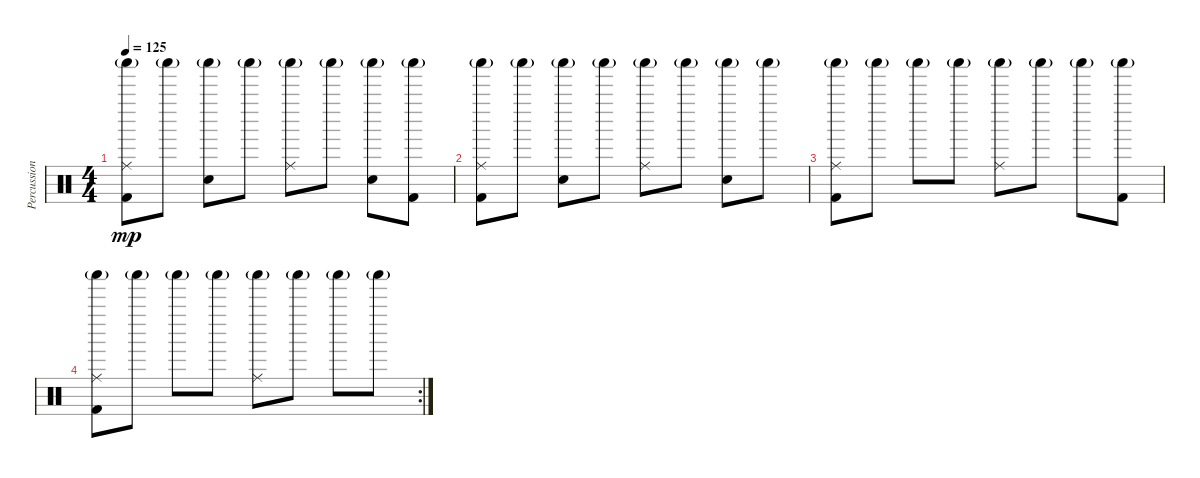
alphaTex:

\track ("Percussion" "Percussion") {instrument percussion}
\staff {score}
\articulation defaults
\ts (4 4)
\tempo 125
\clef neutral
\ks c
("Ride (middle)" "Shaker (hit)"{g} "Kick (hit) 2").8{dy mp} "Shaker (hit)"{g}.8 ("Shaker (hit)"{g} "Electric Snare (hit)").8 "Shaker (hit)"{g}.8 ("Ride (middle)" "Shaker (hit)"{g}).8 "Shaker (hit)"{g}.8 ("Shaker (hit)"{g} "Electric Snare (hit)").8 ("Shaker (hit)"{g} "Kick (hit) 2").8 |
("Ride (middle)" "Shaker (hit)"{g} "Kick (hit) 2").8 "Shaker (hit)"{g}.8 ("Shaker (hit)"{g} "Electric Snare (hit)").8 "Shaker (hit)"{g}.8 ("Ride (middle)" "Shaker (hit)"{g}).8 "Shaker (hit)"{g}.8 ("Shaker (hit)"{g} "Electric Snare (hit)").8 "Shaker (hit)"{g}.8 |
("Ride (middle)" "Shaker (hit)"{g} "Kick (hit) 2").8 "Shaker (hit)"{g}.8 "Shaker (hit)"{g}.8 "Shaker (hit)"{g}.8 ("Ride (middle)" "Shaker (hit)"{g}).8 "Shaker (hit)"{g}.8 "Shaker (hit)"{g}.8 ("Shaker (hit)"{g} "Kick (hit) 2").8 |
\rc 2
("Ride (middle)" "Shaker (hit)"{g} "Kick (hit) 2").8 "Shaker (hit)"{g}.8 "Shaker (hit)"{g}.8 "Shaker (hit)"{g}.8 ("Ride (middle)" "Shaker (hit)"{g}).8 "Shaker (hit)"{g}.8 "Shaker (hit)"{g}.8 "Shaker (hit)"{g}.8
